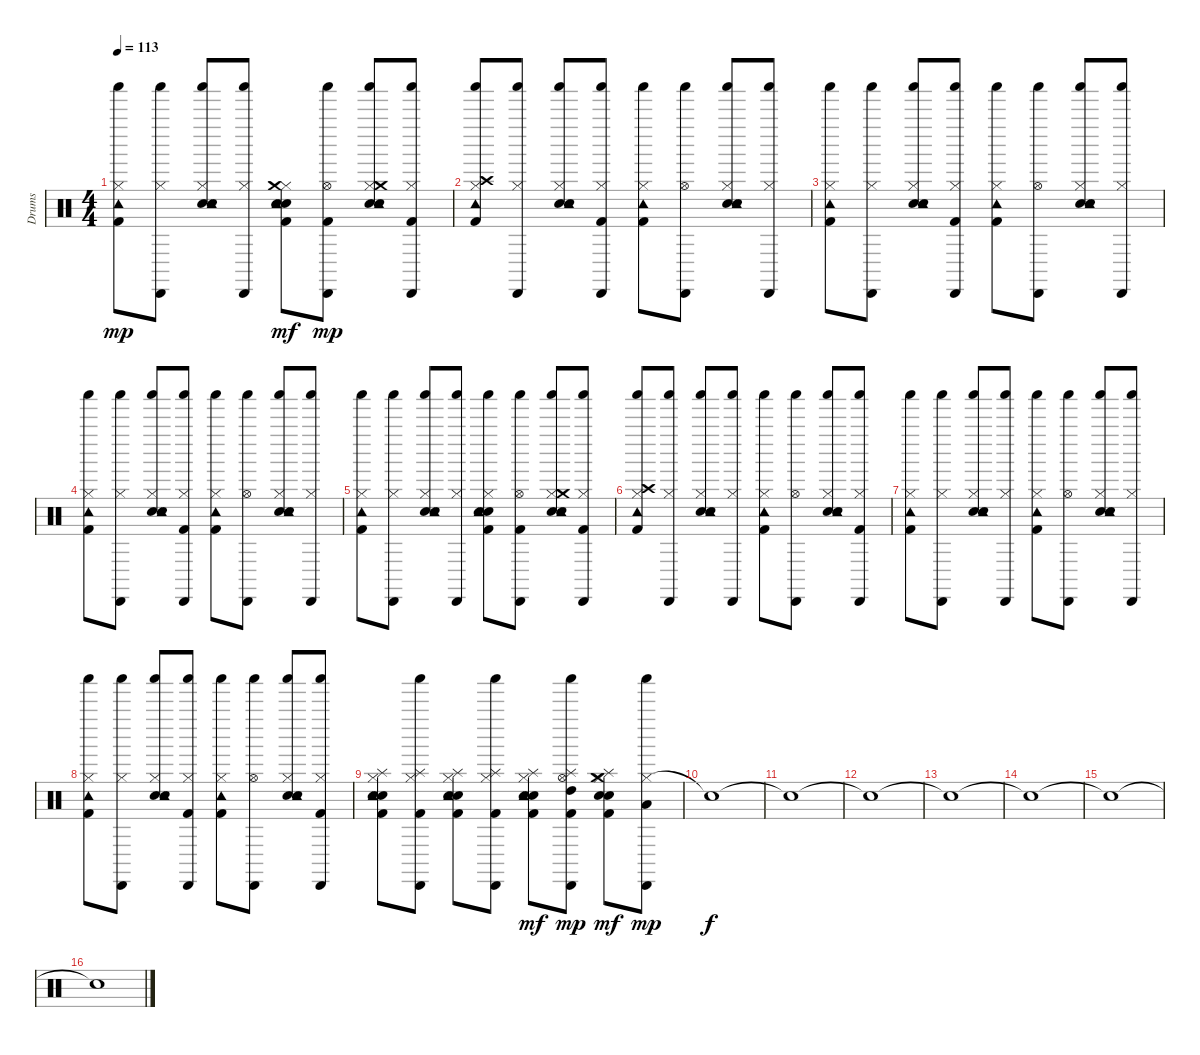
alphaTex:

\track ("Drums" "Drums") {instrument percussion}
\staff {score}
\articulation defaults
\ts (4 4)
\tempo 113
\clef neutral
\ks c
("Kick (hit) 2" "Hi-Hat (closed)" "Tambourine (hit)" "Shaker (hit)").8{dy mp} ("Hi-Hat (closed)" "Shaker (hit)" "Cabasa (hit)").8 ("Hand Clap (hit)" "Snare (hit) 2" "Hi-Hat (closed)" "Tambourine (hit)" "Shaker (hit)").8 ("Hi-Hat (closed)" "Shaker (hit)" "Cabasa (hit)").8 ("Kick (hit) 2" "Hand Clap (hit)" "Snare (hit) 2" "Hi-Hat (closed)" "Crash medium (hit)" "Tambourine (hit)").8{dy mf} ("Kick (hit) 2" "Hi-Hat (open)" "Shaker (hit)" "Cabasa (hit)").8{dy mp} ("Hand Clap (hit)" "Snare (hit) 2" "Hi-Hat (closed)" "Crash medium (hit)" "Tambourine (hit)" "Shaker (hit)").8 ("Kick (hit) 2" "Hi-Hat (closed)" "Shaker (hit)" "Cabasa (hit)").8 |
("Kick (hit) 2" "Hi-Hat (closed)" "Crash high (hit)" "Tambourine (hit)" "Shaker (hit)").8 ("Hi-Hat (closed)" "Shaker (hit)" "Cabasa (hit)").8 ("Hand Clap (hit)" "Snare (hit) 2" "Hi-Hat (closed)" "Tambourine (hit)" "Shaker (hit)").8 ("Hi-Hat (closed)" "Shaker (hit)" "Kick (hit) 2" "Cabasa (hit)").8 ("Kick (hit) 2" "Hi-Hat (closed)" "Tambourine (hit)" "Shaker (hit)").8 ("Hi-Hat (open)" "Shaker (hit)" "Cabasa (hit)").8 ("Hand Clap (hit)" "Snare (hit) 2" "Hi-Hat (closed)" "Tambourine (hit)" "Shaker (hit)").8 ("Hi-Hat (closed)" "Shaker (hit)" "Cabasa (hit)").8 |
("Kick (hit) 2" "Hi-Hat (closed)" "Tambourine (hit)" "Shaker (hit)").8 ("Hi-Hat (closed)" "Shaker (hit)" "Cabasa (hit)").8 ("Hand Clap (hit)" "Snare (hit) 2" "Hi-Hat (closed)" "Tambourine (hit)" "Shaker (hit)").8 ("Hi-Hat (closed)" "Shaker (hit)" "Kick (hit) 2" "Cabasa (hit)").8 ("Kick (hit) 2" "Hi-Hat (closed)" "Tambourine (hit)" "Shaker (hit)").8 ("Hi-Hat (open)" "Shaker (hit)" "Cabasa (hit)").8 ("Hand Clap (hit)" "Snare (hit) 2" "Hi-Hat (closed)" "Tambourine (hit)" "Shaker (hit)").8 ("Hi-Hat (closed)" "Shaker (hit)" "Cabasa (hit)").8 |
("Kick (hit) 2" "Hi-Hat (closed)" "Tambourine (hit)" "Shaker (hit)").8 ("Hi-Hat (closed)" "Shaker (hit)" "Cabasa (hit)").8 ("Hand Clap (hit)" "Snare (hit) 2" "Hi-Hat (closed)" "Tambourine (hit)" "Shaker (hit)").8 ("Hi-Hat (closed)" "Shaker (hit)" "Kick (hit) 2" "Cabasa (hit)").8 ("Kick (hit) 2" "Hi-Hat (closed)" "Tambourine (hit)" "Shaker (hit)").8 ("Hi-Hat (open)" "Shaker (hit)" "Cabasa (hit)").8 ("Hand Clap (hit)" "Snare (hit) 2" "Hi-Hat (closed)" "Tambourine (hit)" "Shaker (hit)").8 ("Hi-Hat (closed)" "Shaker (hit)" "Cabasa (hit)").8 |
("Kick (hit) 2" "Hi-Hat (closed)" "Tambourine (hit)" "Shaker (hit)").8 ("Hi-Hat (closed)" "Shaker (hit)" "Cabasa (hit)").8 ("Hand Clap (hit)" "Snare (hit) 2" "Hi-Hat (closed)" "Tambourine (hit)" "Shaker (hit)").8 ("Hi-Hat (closed)" "Shaker (hit)" "Cabasa (hit)").8 ("Kick (hit) 2" "Hand Clap (hit)" "Snare (hit) 2" "Hi-Hat (closed)" "Tambourine (hit)" "Shaker (hit)").8 ("Kick (hit) 2" "Hi-Hat (open)" "Shaker (hit)" "Cabasa (hit)").8 ("Hand Clap (hit)" "Snare (hit) 2" "Hi-Hat (closed)" "Crash medium (hit)" "Tambourine (hit)" "Shaker (hit)").8 ("Kick (hit) 2" "Hi-Hat (closed)" "Shaker (hit)" "Cabasa (hit)").8 |
("Kick (hit) 2" "Hi-Hat (closed)" "Crash high (hit)" "Tambourine (hit)" "Shaker (hit)").8 ("Hi-Hat (closed)" "Shaker (hit)" "Cabasa (hit)").8 ("Hand Clap (hit)" "Snare (hit) 2" "Hi-Hat (closed)" "Tambourine (hit)" "Shaker (hit)").8 ("Hi-Hat (closed)" "Shaker (hit)" "Cabasa (hit)").8 ("Kick (hit) 2" "Hi-Hat (closed)" "Tambourine (hit)" "Shaker (hit)").8 ("Hi-Hat (open)" "Shaker (hit)" "Cabasa (hit)").8 ("Hand Clap (hit)" "Snare (hit) 2" "Hi-Hat (closed)" "Tambourine (hit)" "Shaker (hit)").8 ("Hi-Hat (closed)" "Shaker (hit)" "Kick (hit) 2" "Cabasa (hit)").8 |
("Kick (hit) 2" "Hi-Hat (closed)" "Tambourine (hit)" "Shaker (hit)").8 ("Hi-Hat (closed)" "Shaker (hit)" "Cabasa (hit)").8 ("Hand Clap (hit)" "Snare (hit) 2" "Hi-Hat (closed)" "Tambourine (hit)" "Shaker (hit)").8 ("Hi-Hat (closed)" "Shaker (hit)" "Cabasa (hit)").8 ("Kick (hit) 2" "Hi-Hat (closed)" "Tambourine (hit)" "Shaker (hit)").8 ("Hi-Hat (open)" "Shaker (hit)" "Cabasa (hit)").8 ("Hand Clap (hit)" "Snare (hit) 2" "Hi-Hat (closed)" "Tambourine (hit)" "Shaker (hit)").8 ("Hi-Hat (closed)" "Shaker (hit)" "Cabasa (hit)").8 |
("Kick (hit) 2" "Hi-Hat (closed)" "Tambourine (hit)" "Shaker (hit)").8 ("Hi-Hat (closed)" "Shaker (hit)" "Cabasa (hit)").8 ("Hand Clap (hit)" "Snare (hit) 2" "Hi-Hat (closed)" "Tambourine (hit)" "Shaker (hit)").8 ("Hi-Hat (closed)" "Shaker (hit)" "Kick (hit) 2" "Cabasa (hit)").8 ("Kick (hit) 2" "Hi-Hat (closed)" "Tambourine (hit)" "Shaker (hit)").8 ("Hi-Hat (open)" "Shaker (hit)" "Cabasa (hit)").8 ("Hand Clap (hit)" "Snare (hit) 2" "Hi-Hat (closed)" "Tambourine (hit)" "Shaker (hit)").8 ("Hi-Hat (closed)" "Shaker (hit)" "Kick (hit) 2" "Cabasa (hit)").8 |
("Kick (hit) 2" "Snare (hit) 2" "Hand Clap (hit)" "Hi-Hat (closed)" "Splash (hit)" "Tambourine (hit)").8 ("Hi-Hat (closed)" "Splash (hit)" "Shaker (hit)" "Kick (hit) 2" "Cabasa (hit)").8 ("Kick (hit) 2" "Snare (hit) 2" "Hand Clap (hit)" "Hi-Hat (closed)" "Splash (hit)" "Tambourine (hit)").8 ("Hi-Hat (closed)" "Splash (hit)" "Shaker (hit)" "Kick (hit) 2" "Cabasa (hit)").8 ("Kick (hit) 2" "Snare (hit) 2" "Hand Clap (hit)" "Hi-Hat (closed)" "Splash (hit)" "Tambourine (hit)").8{dy mf} ("Hi-Hat (open)" "Splash (hit)" "High Tom (hit)" "Shaker (hit)" "Kick (hit) 2" "Cabasa (hit)").8{dy mp} ("Kick (hit) 2" "Hand Clap (hit)" "Snare (hit) 2" "Hi-Hat (closed)" "Splash (hit)" "Crash medium (hit)").8{dy mf} ("Hi-Hat (closed)" "Low Tom (hit)" "Shaker (hit)" "Cabasa (hit)").8{dy mp} |
"Snare (hit)"{t}.1{dy f} |
"Snare (hit)"{t}.1 |
"Snare (hit)"{t}.1 |
"Snare (hit)"{t}.1 |
"Snare (hit)"{t}.1 |
"Snare (hit)"{t}.1 |
"Snare (hit)"{t}.1
